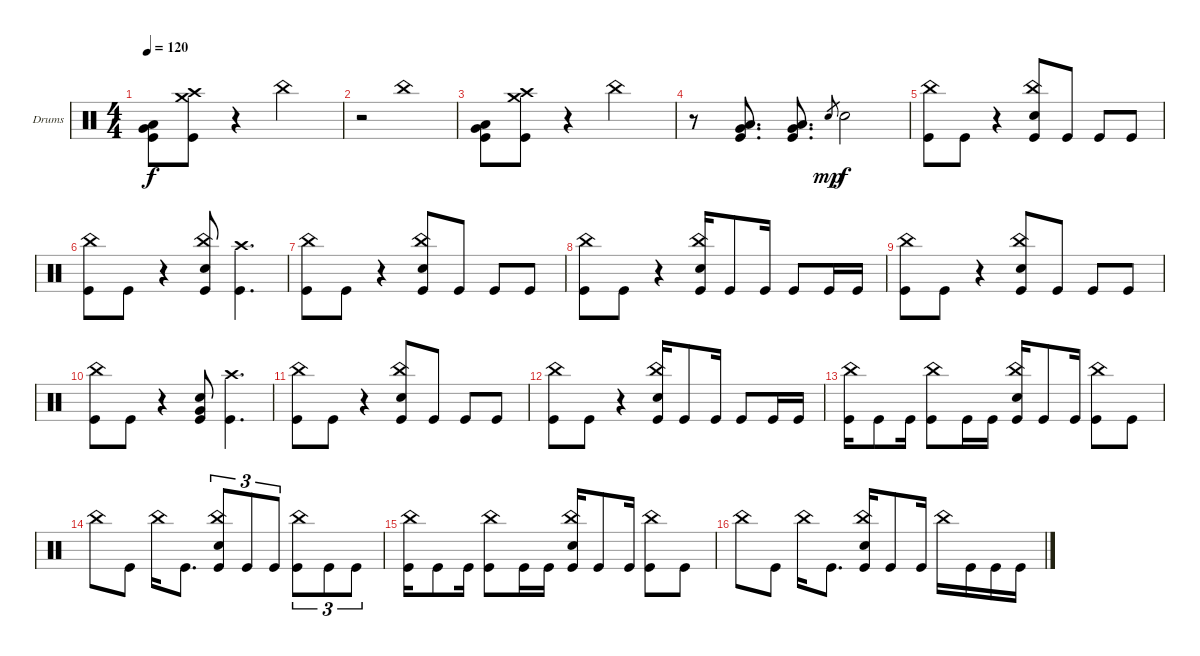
\defaultSystemsLayout 4
\bracketExtendMode groupsimilarinstruments
\firstSystemTrackNameOrientation horizontal
\otherSystemsTrackNameOrientation horizontal
\track ("Drumkit" "Drums") {instrument percussion}
\staff {score}
\articulation defaults
\ts (4 4)
\tempo 120
\clef neutral
\scale
0.333333
\ks c
("Low Tom (hit)" "Very Low Tom (hit)" "Kick (hit)").8{dy f} ("Crash medium (hit)" "Crash high (hit)" "Kick (hit)").8 r.4 "China (hit)".2 |
\scale
0.333333 r.2 "China (hit)".1 |
\scale
0.333333 ("Low Tom (hit)" "Very Low Tom (hit)" "Kick (hit)").8 ("Crash medium (hit)" "Crash high (hit)" "Kick (hit)").8 r.4 "China (hit)".2 |
\scale
0.333333 r.8 ("Low Tom (hit)" "Very Low Tom (hit)" "Kick (hit)").8{d} ("Low Tom (hit)" "Very Low Tom (hit)" "Kick (hit)").8{d} "Snare (hit) 2".8{gr dy mp} "Snare (hit) 2".2{dy f} |
\scale
0.333333 ("China (hit)" "Kick (hit)").8 "Kick (hit)".8 r.4 ("China (hit)" "Snare (hit) 2" "Kick (hit)").8 "Kick (hit)".8 "Kick (hit)".8 "Kick (hit)".8 |
\scale
0.333333 ("China (hit)" "Kick (hit)").8 "Kick (hit)".8 r.4 ("China (hit)" "Snare (hit) 2" "Kick (hit)").8 ("Crash high (hit)" "Kick (hit)").4{d} |
\scale
0.333333 ("China (hit)" "Kick (hit)").8 "Kick (hit)".8 r.4 ("China (hit)" "Snare (hit) 2" "Kick (hit)").8 "Kick (hit)".8 "Kick (hit)".8 "Kick (hit)".8 |
\scale
0.333333 ("China (hit)" "Kick (hit)").8 "Kick (hit)".8 r.4 ("China (hit)" "Snare (hit) 2" "Kick (hit)").16 "Kick (hit)".8 "Kick (hit)".16 "Kick (hit)".8 "Kick (hit)".16 "Kick (hit)".16 |
\scale
0.333333 ("China (hit)" "Kick (hit)").8 "Kick (hit)".8 r.4 ("China (hit)" "Snare (hit) 2" "Kick (hit)").8 "Kick (hit)".8 "Kick (hit)".8 "Kick (hit)".8 |
\scale
0.333333 ("China (hit)" "Kick (hit)").8 "Kick (hit)".8 r.4 ("Very Low Tom (hit)" "Snare (hit) 2" "Kick (hit)").8 ("Crash high (hit)" "Kick (hit)").4{d} |
\scale
0.333333 ("China (hit)" "Kick (hit)").8 "Kick (hit)".8 r.4 ("China (hit)" "Snare (hit) 2" "Kick (hit)").8 "Kick (hit)".8 "Kick (hit)".8 "Kick (hit)".8 |
\scale
0.333333 ("China (hit)" "Kick (hit)").8 "Kick (hit)".8 r.4 ("China (hit)" "Snare (hit) 2" "Kick (hit)").16 "Kick (hit)".8 "Kick (hit)".16 "Kick (hit)".8 "Kick (hit)".16 "Kick (hit)".16 |
\scale
0.333333 ("China (hit)" "Kick (hit)").16 "Kick (hit)".8 "Kick (hit)".16 ("China (hit)" "Kick (hit)").8 "Kick (hit)".16 "Kick (hit)".16 ("China (hit)" "Snare (hit) 2" "Kick (hit)").16 "Kick (hit)".8 "Kick (hit)".16 ("China (hit)" "Kick (hit)").8 "Kick (hit)".8 |
\scale
0.333333 "China (hit)".8 "Kick (hit)".8 "China (hit)".16 "Kick (hit)".8{d} ("China (hit)" "Snare (hit) 2" "Kick (hit)").8{tu (3 2)} "Kick (hit)".8{tu (3 2)} "Kick (hit)".8{tu (3 2)} ("China (hit)" "Kick (hit)").8{tu (3 2)} "Kick (hit)".8{tu (3 2)} "Kick (hit)".8{tu (3 2)} |
\scale
0.333333 ("China (hit)" "Kick (hit)").16 "Kick (hit)".8 "Kick (hit)".16 ("China (hit)" "Kick (hit)").8 "Kick (hit)".16 "Kick (hit)".16 ("China (hit)" "Snare (hit) 2" "Kick (hit)").16 "Kick (hit)".8 "Kick (hit)".16 ("China (hit)" "Kick (hit)").8 "Kick (hit)".8 |
\scale
0.333333 "China (hit)".8 "Kick (hit)".8 "China (hit)".16 "Kick (hit)".8{d} ("China (hit)" "Snare (hit) 2" "Kick (hit)").16 "Kick (hit)".8 "Kick (hit)".16 "China (hit)".16 "Kick (hit)".16 "Kick (hit)".16 "Kick (hit)".16
